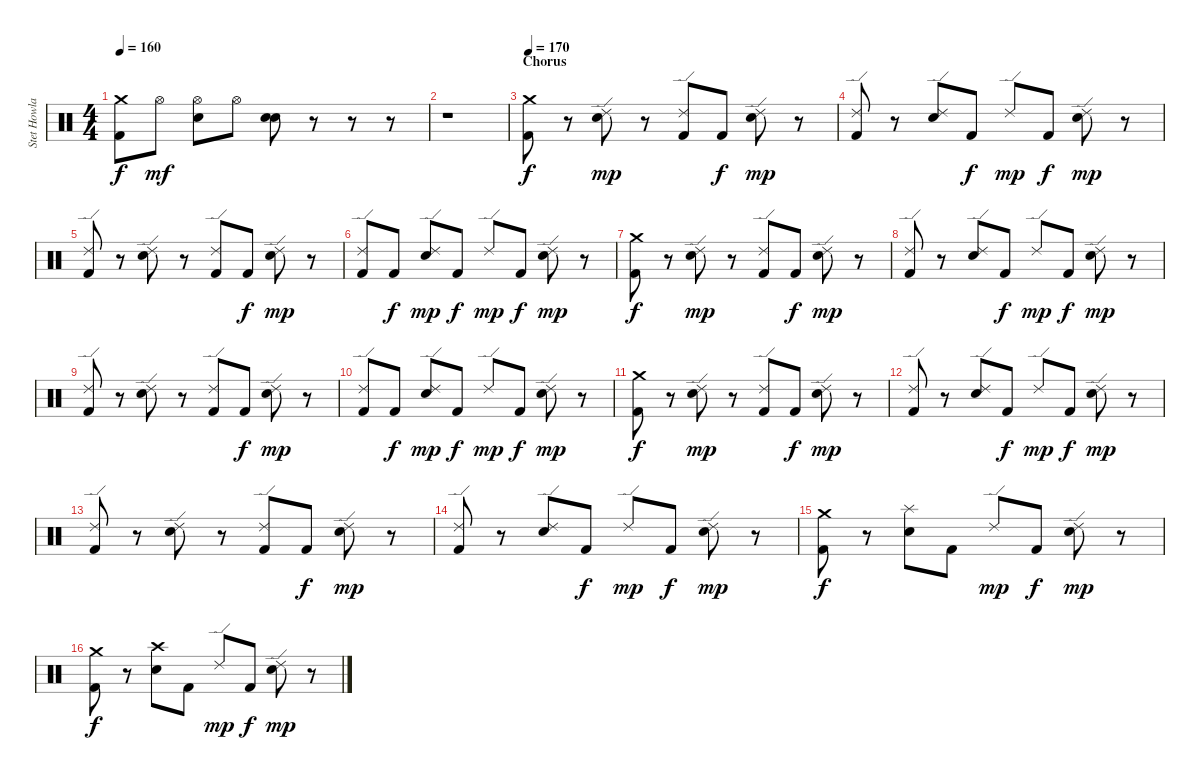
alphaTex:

\track ("Stet Howland" "Stet Howla") {instrument percussion}
\staff {score}
\articulation defaults
\ts (4 4)
\tempo 160
\clef neutral
\ks c
("Crash medium (hit)" "Kick (hit) 2").8{dy f} "Hi-Hat (open)".8{dy mf} ("Hi-Hat (open)" "Electric Snare (hit)").8 "Hi-Hat (open)".8 ("Electric Snare (hit)" "Electric Snare (hit)").8 r.8 r.8 r.8 |
r.1 |
\section ("" "Chorus")
\tempo 170
("Crash medium (hit)" "Kick (hit) 2").8{dy f} r.8 ("Ride (edge) 2" "Electric Snare (hit)").8{dy mp} r.8 ("Ride (edge) 2" "Kick (hit) 2").8 "Kick (hit) 2".8{dy f} ("Ride (edge) 2" "Electric Snare (hit)").8{dy mp} r.8 |
("Ride (edge) 2" "Kick (hit) 2").8 r.8 ("Ride (edge) 2" "Electric Snare (hit)").8 "Kick (hit) 2".8{dy f} "Ride (edge) 2".8{dy mp} "Kick (hit) 2".8{dy f} ("Ride (edge) 2" "Electric Snare (hit)").8{dy mp} r.8 |
("Ride (edge) 2" "Kick (hit) 2").8 r.8 ("Ride (edge) 2" "Electric Snare (hit)").8 r.8 ("Ride (edge) 2" "Kick (hit) 2").8 "Kick (hit) 2".8{dy f} ("Ride (edge) 2" "Electric Snare (hit)").8{dy mp} r.8 |
("Ride (edge) 2" "Kick (hit) 2").8 "Kick (hit) 2".8{dy f} ("Ride (edge) 2" "Electric Snare (hit)").8{dy mp} "Kick (hit) 2".8{dy f} "Ride (edge) 2".8{dy mp} "Kick (hit) 2".8{dy f} ("Ride (edge) 2" "Electric Snare (hit)").8{dy mp} r.8 |
("Crash medium (hit)" "Kick (hit) 2").8{dy f} r.8 ("Ride (edge) 2" "Electric Snare (hit)").8{dy mp} r.8 ("Ride (edge) 2" "Kick (hit) 2").8 "Kick (hit) 2".8{dy f} ("Ride (edge) 2" "Electric Snare (hit)").8{dy mp} r.8 |
("Ride (edge) 2" "Kick (hit) 2").8 r.8 ("Ride (edge) 2" "Electric Snare (hit)").8 "Kick (hit) 2".8{dy f} "Ride (edge) 2".8{dy mp} "Kick (hit) 2".8{dy f} ("Ride (edge) 2" "Electric Snare (hit)").8{dy mp} r.8 |
("Ride (edge) 2" "Kick (hit) 2").8 r.8 ("Ride (edge) 2" "Electric Snare (hit)").8 r.8 ("Ride (edge) 2" "Kick (hit) 2").8 "Kick (hit) 2".8{dy f} ("Ride (edge) 2" "Electric Snare (hit)").8{dy mp} r.8 |
("Ride (edge) 2" "Kick (hit) 2").8 "Kick (hit) 2".8{dy f} ("Ride (edge) 2" "Electric Snare (hit)").8{dy mp} "Kick (hit) 2".8{dy f} "Ride (edge) 2".8{dy mp} "Kick (hit) 2".8{dy f} ("Ride (edge) 2" "Electric Snare (hit)").8{dy mp} r.8 |
("Crash medium (hit)" "Kick (hit) 2").8{dy f} r.8 ("Ride (edge) 2" "Electric Snare (hit)").8{dy mp} r.8 ("Ride (edge) 2" "Kick (hit) 2").8 "Kick (hit) 2".8{dy f} ("Ride (edge) 2" "Electric Snare (hit)").8{dy mp} r.8 |
("Ride (edge) 2" "Kick (hit) 2").8 r.8 ("Ride (edge) 2" "Electric Snare (hit)").8 "Kick (hit) 2".8{dy f} "Ride (edge) 2".8{dy mp} "Kick (hit) 2".8{dy f} ("Ride (edge) 2" "Electric Snare (hit)").8{dy mp} r.8 |
("Ride (edge) 2" "Kick (hit) 2").8 r.8 ("Ride (edge) 2" "Electric Snare (hit)").8 r.8 ("Ride (edge) 2" "Kick (hit) 2").8 "Kick (hit) 2".8{dy f} ("Ride (edge) 2" "Electric Snare (hit)").8{dy mp} r.8 |
("Ride (edge) 2" "Kick (hit) 2").8 r.8 ("Ride (edge) 2" "Electric Snare (hit)").8 "Kick (hit) 2".8{dy f} "Ride (edge) 2".8{dy mp} "Kick (hit) 2".8{dy f} ("Ride (edge) 2" "Electric Snare (hit)").8{dy mp} r.8 |
("Crash medium (hit)" "Kick (hit) 2").8{dy f} r.8 ("Splash (hit)" "Electric Snare (hit)").8 "Kick (hit) 2".8 "Ride (edge) 2".8{dy mp} "Kick (hit) 2".8{dy f} ("Ride (edge) 2" "Electric Snare (hit)").8{dy mp} r.8 |
("Crash medium (hit)" "Kick (hit) 2").8{dy f} r.8 ("Crash high (hit)" "Electric Snare (hit)").8 "Kick (hit) 2".8 "Ride (edge) 2".8{dy mp} "Kick (hit) 2".8{dy f} ("Ride (edge) 2" "Electric Snare (hit)").8{dy mp} r.8
